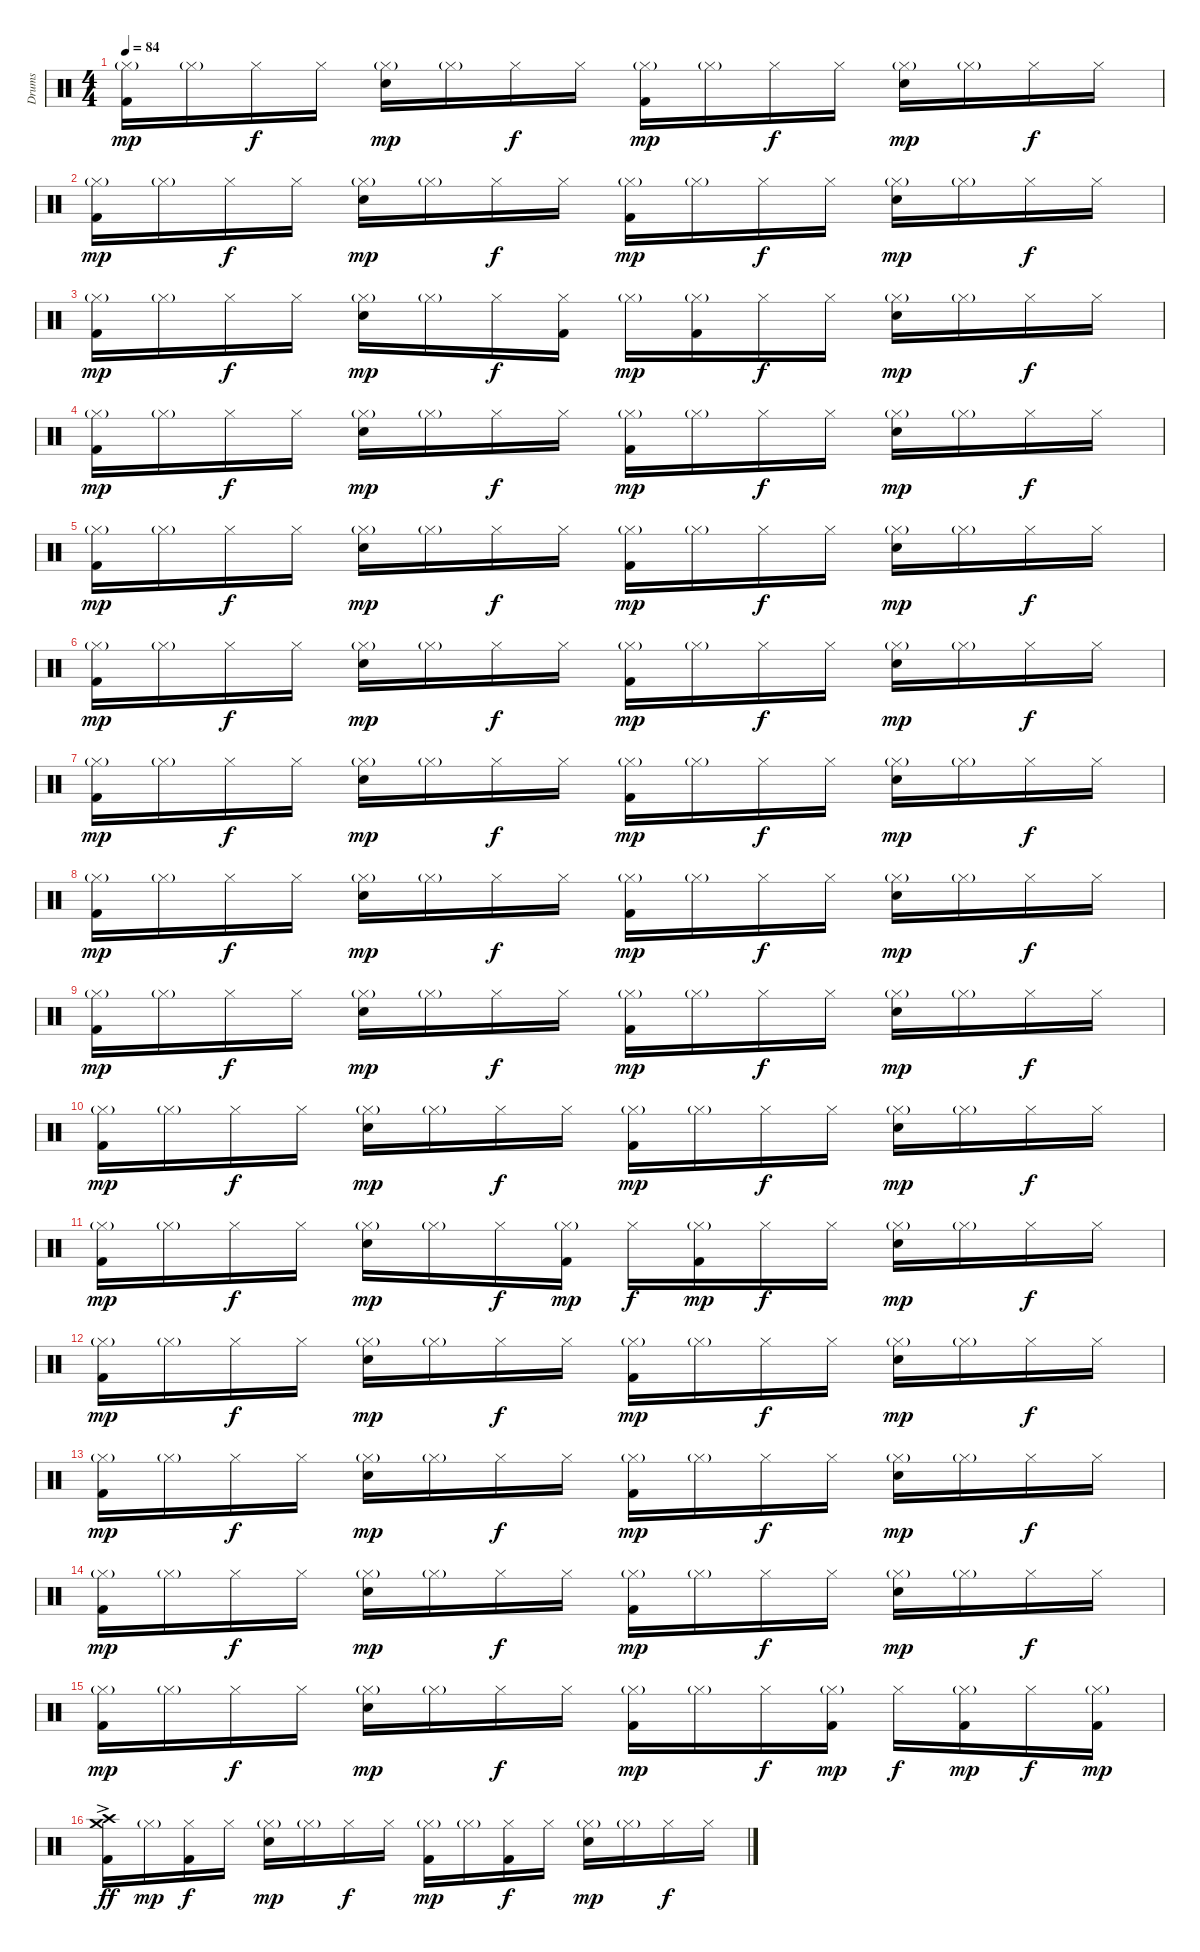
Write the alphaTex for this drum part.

\track ("Drums" "Drums") {instrument percussion}
\staff {score}
\articulation defaults
\ts (4 4)
\tempo 84
\clef neutral
\ks c
("Hi-Hat (closed)"{g} "Kick (hit) 2").16{dy mp} "Hi-Hat (closed)"{g}.16 "Hi-Hat (closed)".16{dy f} "Hi-Hat (closed)".16 ("Hi-Hat (closed)"{g} "Snare (hit) 2").16{dy mp} "Hi-Hat (closed)"{g}.16 "Hi-Hat (closed)".16{dy f} "Hi-Hat (closed)".16 ("Hi-Hat (closed)"{g} "Kick (hit) 2").16{dy mp} "Hi-Hat (closed)"{g}.16 "Hi-Hat (closed)".16{dy f} "Hi-Hat (closed)".16 ("Hi-Hat (closed)"{g} "Snare (hit) 2").16{dy mp} "Hi-Hat (closed)"{g}.16 "Hi-Hat (closed)".16{dy f} "Hi-Hat (closed)".16 |
("Hi-Hat (closed)"{g} "Kick (hit) 2").16{dy mp} "Hi-Hat (closed)"{g}.16 "Hi-Hat (closed)".16{dy f} "Hi-Hat (closed)".16 ("Hi-Hat (closed)"{g} "Snare (hit) 2").16{dy mp} "Hi-Hat (closed)"{g}.16 "Hi-Hat (closed)".16{dy f} "Hi-Hat (closed)".16 ("Hi-Hat (closed)"{g} "Kick (hit) 2").16{dy mp} "Hi-Hat (closed)"{g}.16 "Hi-Hat (closed)".16{dy f} "Hi-Hat (closed)".16 ("Hi-Hat (closed)"{g} "Snare (hit) 2").16{dy mp} "Hi-Hat (closed)"{g}.16 "Hi-Hat (closed)".16{dy f} "Hi-Hat (closed)".16 |
("Hi-Hat (closed)"{g} "Kick (hit) 2").16{dy mp} "Hi-Hat (closed)"{g}.16 "Hi-Hat (closed)".16{dy f} "Hi-Hat (closed)".16 ("Hi-Hat (closed)"{g} "Snare (hit) 2").16{dy mp} "Hi-Hat (closed)"{g}.16 "Hi-Hat (closed)".16{dy f} ("Hi-Hat (closed)" "Kick (hit) 2").16 "Hi-Hat (closed)"{g}.16{dy mp} ("Hi-Hat (closed)"{g} "Kick (hit) 2").16 "Hi-Hat (closed)".16{dy f} "Hi-Hat (closed)".16 ("Hi-Hat (closed)"{g} "Snare (hit) 2").16{dy mp} "Hi-Hat (closed)"{g}.16 "Hi-Hat (closed)".16{dy f} "Hi-Hat (closed)".16 |
("Hi-Hat (closed)"{g} "Kick (hit) 2").16{dy mp} "Hi-Hat (closed)"{g}.16 "Hi-Hat (closed)".16{dy f} "Hi-Hat (closed)".16 ("Hi-Hat (closed)"{g} "Snare (hit) 2").16{dy mp} "Hi-Hat (closed)"{g}.16 "Hi-Hat (closed)".16{dy f} "Hi-Hat (closed)".16 ("Hi-Hat (closed)"{g} "Kick (hit) 2").16{dy mp} "Hi-Hat (closed)"{g}.16 "Hi-Hat (closed)".16{dy f} "Hi-Hat (closed)".16 ("Hi-Hat (closed)"{g} "Snare (hit) 2").16{dy mp} "Hi-Hat (closed)"{g}.16 "Hi-Hat (closed)".16{dy f} "Hi-Hat (closed)".16 |
("Hi-Hat (closed)"{g} "Kick (hit) 2").16{dy mp} "Hi-Hat (closed)"{g}.16 "Hi-Hat (closed)".16{dy f} "Hi-Hat (closed)".16 ("Hi-Hat (closed)"{g} "Snare (hit) 2").16{dy mp} "Hi-Hat (closed)"{g}.16 "Hi-Hat (closed)".16{dy f} "Hi-Hat (closed)".16 ("Hi-Hat (closed)"{g} "Kick (hit) 2").16{dy mp} "Hi-Hat (closed)"{g}.16 "Hi-Hat (closed)".16{dy f} "Hi-Hat (closed)".16 ("Hi-Hat (closed)"{g} "Snare (hit) 2").16{dy mp} "Hi-Hat (closed)"{g}.16 "Hi-Hat (closed)".16{dy f} "Hi-Hat (closed)".16 |
("Hi-Hat (closed)"{g} "Kick (hit) 2").16{dy mp} "Hi-Hat (closed)"{g}.16 "Hi-Hat (closed)".16{dy f} "Hi-Hat (closed)".16 ("Hi-Hat (closed)"{g} "Snare (hit) 2").16{dy mp} "Hi-Hat (closed)"{g}.16 "Hi-Hat (closed)".16{dy f} "Hi-Hat (closed)".16 ("Hi-Hat (closed)"{g} "Kick (hit) 2").16{dy mp} "Hi-Hat (closed)"{g}.16 "Hi-Hat (closed)".16{dy f} "Hi-Hat (closed)".16 ("Hi-Hat (closed)"{g} "Snare (hit) 2").16{dy mp} "Hi-Hat (closed)"{g}.16 "Hi-Hat (closed)".16{dy f} "Hi-Hat (closed)".16 |
("Hi-Hat (closed)"{g} "Kick (hit) 2").16{dy mp} "Hi-Hat (closed)"{g}.16 "Hi-Hat (closed)".16{dy f} "Hi-Hat (closed)".16 ("Hi-Hat (closed)"{g} "Snare (hit) 2").16{dy mp} "Hi-Hat (closed)"{g}.16 "Hi-Hat (closed)".16{dy f} "Hi-Hat (closed)".16 ("Hi-Hat (closed)"{g} "Kick (hit) 2").16{dy mp} "Hi-Hat (closed)"{g}.16 "Hi-Hat (closed)".16{dy f} "Hi-Hat (closed)".16 ("Hi-Hat (closed)"{g} "Snare (hit) 2").16{dy mp} "Hi-Hat (closed)"{g}.16 "Hi-Hat (closed)".16{dy f} "Hi-Hat (closed)".16 |
("Hi-Hat (closed)"{g} "Kick (hit) 2").16{dy mp} "Hi-Hat (closed)"{g}.16 "Hi-Hat (closed)".16{dy f} "Hi-Hat (closed)".16 ("Hi-Hat (closed)"{g} "Snare (hit) 2").16{dy mp} "Hi-Hat (closed)"{g}.16 "Hi-Hat (closed)".16{dy f} "Hi-Hat (closed)".16 ("Hi-Hat (closed)"{g} "Kick (hit) 2").16{dy mp} "Hi-Hat (closed)"{g}.16 "Hi-Hat (closed)".16{dy f} "Hi-Hat (closed)".16 ("Hi-Hat (closed)"{g} "Snare (hit) 2").16{dy mp} "Hi-Hat (closed)"{g}.16 "Hi-Hat (closed)".16{dy f} "Hi-Hat (closed)".16 |
("Hi-Hat (closed)"{g} "Kick (hit) 2").16{dy mp} "Hi-Hat (closed)"{g}.16 "Hi-Hat (closed)".16{dy f} "Hi-Hat (closed)".16 ("Hi-Hat (closed)"{g} "Snare (hit) 2").16{dy mp} "Hi-Hat (closed)"{g}.16 "Hi-Hat (closed)".16{dy f} "Hi-Hat (closed)".16 ("Hi-Hat (closed)"{g} "Kick (hit) 2").16{dy mp} "Hi-Hat (closed)"{g}.16 "Hi-Hat (closed)".16{dy f} "Hi-Hat (closed)".16 ("Hi-Hat (closed)"{g} "Snare (hit) 2").16{dy mp} "Hi-Hat (closed)"{g}.16 "Hi-Hat (closed)".16{dy f} "Hi-Hat (closed)".16 |
("Hi-Hat (closed)"{g} "Kick (hit) 2").16{dy mp} "Hi-Hat (closed)"{g}.16 "Hi-Hat (closed)".16{dy f} "Hi-Hat (closed)".16 ("Hi-Hat (closed)"{g} "Snare (hit) 2").16{dy mp} "Hi-Hat (closed)"{g}.16 "Hi-Hat (closed)".16{dy f} "Hi-Hat (closed)".16 ("Hi-Hat (closed)"{g} "Kick (hit) 2").16{dy mp} "Hi-Hat (closed)"{g}.16 "Hi-Hat (closed)".16{dy f} "Hi-Hat (closed)".16 ("Hi-Hat (closed)"{g} "Snare (hit) 2").16{dy mp} "Hi-Hat (closed)"{g}.16 "Hi-Hat (closed)".16{dy f} "Hi-Hat (closed)".16 |
("Hi-Hat (closed)"{g} "Kick (hit) 2").16{dy mp} "Hi-Hat (closed)"{g}.16 "Hi-Hat (closed)".16{dy f} "Hi-Hat (closed)".16 ("Hi-Hat (closed)"{g} "Snare (hit) 2").16{dy mp} "Hi-Hat (closed)"{g}.16 "Hi-Hat (closed)".16{dy f} ("Hi-Hat (closed)"{g} "Kick (hit) 2").16{dy mp} "Hi-Hat (closed)".16{dy f} ("Hi-Hat (closed)"{g} "Kick (hit) 2").16{dy mp} "Hi-Hat (closed)".16{dy f} "Hi-Hat (closed)".16 ("Hi-Hat (closed)"{g} "Snare (hit) 2").16{dy mp} "Hi-Hat (closed)"{g}.16 "Hi-Hat (closed)".16{dy f} "Hi-Hat (closed)".16 |
("Hi-Hat (closed)"{g} "Kick (hit) 2").16{dy mp} "Hi-Hat (closed)"{g}.16 "Hi-Hat (closed)".16{dy f} "Hi-Hat (closed)".16 ("Hi-Hat (closed)"{g} "Snare (hit) 2").16{dy mp} "Hi-Hat (closed)"{g}.16 "Hi-Hat (closed)".16{dy f} "Hi-Hat (closed)".16 ("Hi-Hat (closed)"{g} "Kick (hit) 2").16{dy mp} "Hi-Hat (closed)"{g}.16 "Hi-Hat (closed)".16{dy f} "Hi-Hat (closed)".16 ("Hi-Hat (closed)"{g} "Snare (hit) 2").16{dy mp} "Hi-Hat (closed)"{g}.16 "Hi-Hat (closed)".16{dy f} "Hi-Hat (closed)".16 |
("Hi-Hat (closed)"{g} "Kick (hit) 2").16{dy mp} "Hi-Hat (closed)"{g}.16 "Hi-Hat (closed)".16{dy f} "Hi-Hat (closed)".16 ("Hi-Hat (closed)"{g} "Snare (hit) 2").16{dy mp} "Hi-Hat (closed)"{g}.16 "Hi-Hat (closed)".16{dy f} "Hi-Hat (closed)".16 ("Hi-Hat (closed)"{g} "Kick (hit) 2").16{dy mp} "Hi-Hat (closed)"{g}.16 "Hi-Hat (closed)".16{dy f} "Hi-Hat (closed)".16 ("Hi-Hat (closed)"{g} "Snare (hit) 2").16{dy mp} "Hi-Hat (closed)"{g}.16 "Hi-Hat (closed)".16{dy f} "Hi-Hat (closed)".16 |
("Hi-Hat (closed)"{g} "Kick (hit) 2").16{dy mp} "Hi-Hat (closed)"{g}.16 "Hi-Hat (closed)".16{dy f} "Hi-Hat (closed)".16 ("Hi-Hat (closed)"{g} "Snare (hit) 2").16{dy mp} "Hi-Hat (closed)"{g}.16 "Hi-Hat (closed)".16{dy f} "Hi-Hat (closed)".16 ("Hi-Hat (closed)"{g} "Kick (hit) 2").16{dy mp} "Hi-Hat (closed)"{g}.16 "Hi-Hat (closed)".16{dy f} "Hi-Hat (closed)".16 ("Hi-Hat (closed)"{g} "Snare (hit) 2").16{dy mp} "Hi-Hat (closed)"{g}.16 "Hi-Hat (closed)".16{dy f} "Hi-Hat (closed)".16 |
("Hi-Hat (closed)"{g} "Kick (hit) 2").16{dy mp} "Hi-Hat (closed)"{g}.16 "Hi-Hat (closed)".16{dy f} "Hi-Hat (closed)".16 ("Hi-Hat (closed)"{g} "Snare (hit) 2").16{dy mp} "Hi-Hat (closed)"{g}.16 "Hi-Hat (closed)".16{dy f} "Hi-Hat (closed)".16 ("Hi-Hat (closed)"{g} "Kick (hit) 2").16{dy mp} "Hi-Hat (closed)"{g}.16 "Hi-Hat (closed)".16{dy f} ("Hi-Hat (closed)"{g} "Kick (hit) 2").16{dy mp} "Hi-Hat (closed)".16{dy f} ("Hi-Hat (closed)"{g} "Kick (hit) 2").16{dy mp} "Hi-Hat (closed)".16{dy f} ("Hi-Hat (closed)"{g} "Kick (hit) 2").16{dy mp} |
("Crash high (hit)" "Crash medium (hit)" "Kick (hit) 2"{ac}).16{dy ff} "Hi-Hat (closed)"{g}.16{dy mp} ("Hi-Hat (closed)" "Kick (hit) 2").16{dy f} "Hi-Hat (closed)".16 ("Hi-Hat (closed)"{g} "Snare (hit) 2").16{dy mp} "Hi-Hat (closed)"{g}.16 "Hi-Hat (closed)".16{dy f} "Hi-Hat (closed)".16 ("Hi-Hat (closed)"{g} "Kick (hit) 2").16{dy mp} "Hi-Hat (closed)"{g}.16 ("Hi-Hat (closed)" "Kick (hit) 2").16{dy f} "Hi-Hat (closed)".16 ("Hi-Hat (closed)"{g} "Snare (hit) 2").16{dy mp} "Hi-Hat (closed)"{g}.16 "Hi-Hat (closed)".16{dy f} "Hi-Hat (closed)".16
